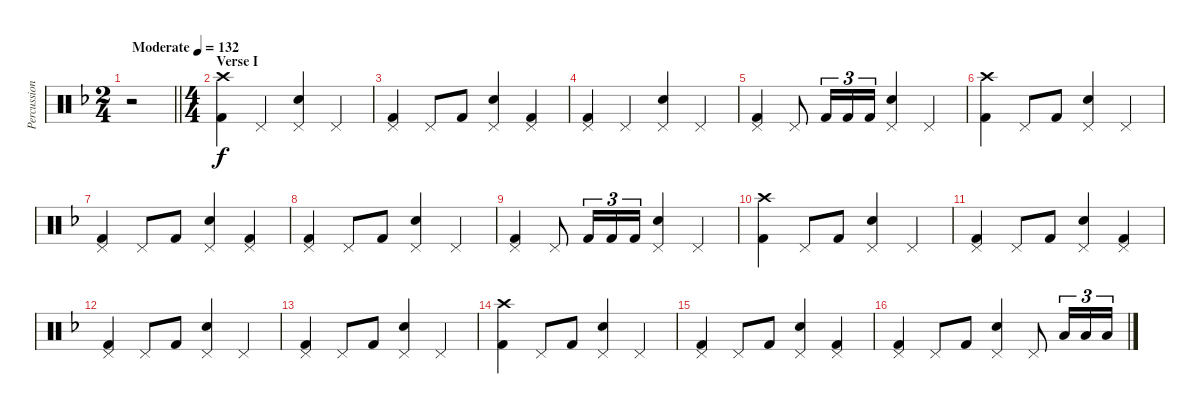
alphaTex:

\track ("Percussion" "Percussion") {instrument percussion}
\staff {score}
\articulation defaults
\ts (2 4)
\tempo (132 "Moderate")
\clef neutral
\barLineRight lightlight
\ks dminor
r.2{dy f} |
\ts (4 4)
\section ("" "Verse I")
("Crash high (hit)" "Kick (hit) 2").4 "Pedal Hi-Hat (hit)".4 ("Pedal Hi-Hat (hit)" "Electric Snare (hit)").4 "Pedal Hi-Hat (hit)".4 |
("Pedal Hi-Hat (hit)" "Kick (hit) 2").4 "Pedal Hi-Hat (hit)".8 "Kick (hit) 2".8 ("Pedal Hi-Hat (hit)" "Electric Snare (hit)").4 ("Pedal Hi-Hat (hit)" "Kick (hit) 2").4 |
("Pedal Hi-Hat (hit)" "Kick (hit) 2").4 "Pedal Hi-Hat (hit)".4 ("Pedal Hi-Hat (hit)" "Electric Snare (hit)").4 "Pedal Hi-Hat (hit)".4 |
("Pedal Hi-Hat (hit)" "Kick (hit) 2").4 "Pedal Hi-Hat (hit)".8 "Kick (hit) 2".16{tu (3 2)} "Kick (hit) 2".16{tu (3 2)} "Kick (hit) 2".16{tu (3 2)} ("Pedal Hi-Hat (hit)" "Electric Snare (hit)").4 "Pedal Hi-Hat (hit)".4 |
("Crash high (hit)" "Kick (hit) 2").4 "Pedal Hi-Hat (hit)".8 "Kick (hit) 2".8 ("Pedal Hi-Hat (hit)" "Electric Snare (hit)").4 "Pedal Hi-Hat (hit)".4 |
("Pedal Hi-Hat (hit)" "Kick (hit) 2").4 "Pedal Hi-Hat (hit)".8 "Kick (hit) 2".8 ("Pedal Hi-Hat (hit)" "Electric Snare (hit)").4 ("Pedal Hi-Hat (hit)" "Kick (hit) 2").4 |
("Pedal Hi-Hat (hit)" "Kick (hit) 2").4 "Pedal Hi-Hat (hit)".8 "Kick (hit) 2".8 ("Pedal Hi-Hat (hit)" "Electric Snare (hit)").4 "Pedal Hi-Hat (hit)".4 |
("Pedal Hi-Hat (hit)" "Kick (hit) 2").4 "Pedal Hi-Hat (hit)".8 "Kick (hit) 2".16{tu (3 2)} "Kick (hit) 2".16{tu (3 2)} "Kick (hit) 2".16{tu (3 2)} ("Pedal Hi-Hat (hit)" "Electric Snare (hit)").4 "Pedal Hi-Hat (hit)".4 |
("Crash high (hit)" "Kick (hit) 2").4 "Pedal Hi-Hat (hit)".8 "Kick (hit) 2".8 ("Pedal Hi-Hat (hit)" "Electric Snare (hit)").4 "Pedal Hi-Hat (hit)".4 |
("Pedal Hi-Hat (hit)" "Kick (hit) 2").4 "Pedal Hi-Hat (hit)".8 "Kick (hit) 2".8 ("Pedal Hi-Hat (hit)" "Electric Snare (hit)").4 ("Pedal Hi-Hat (hit)" "Kick (hit) 2").4 |
("Pedal Hi-Hat (hit)" "Kick (hit) 2").4 "Pedal Hi-Hat (hit)".8 "Kick (hit) 2".8 ("Pedal Hi-Hat (hit)" "Electric Snare (hit)").4 "Pedal Hi-Hat (hit)".4 |
("Pedal Hi-Hat (hit)" "Kick (hit) 2").4 "Pedal Hi-Hat (hit)".8 "Kick (hit) 2".8 ("Pedal Hi-Hat (hit)" "Electric Snare (hit)").4 "Pedal Hi-Hat (hit)".4 |
("Crash high (hit)" "Kick (hit) 2").4 "Pedal Hi-Hat (hit)".8 "Kick (hit) 2".8 ("Pedal Hi-Hat (hit)" "Electric Snare (hit)").4 "Pedal Hi-Hat (hit)".4 |
("Pedal Hi-Hat (hit)" "Kick (hit) 2").4 "Pedal Hi-Hat (hit)".8 "Kick (hit) 2".8 ("Pedal Hi-Hat (hit)" "Electric Snare (hit)").4 ("Pedal Hi-Hat (hit)" "Kick (hit) 2").4 |
("Pedal Hi-Hat (hit)" "Kick (hit) 2").4 "Pedal Hi-Hat (hit)".8 "Kick (hit) 2".8 ("Pedal Hi-Hat (hit)" "Electric Snare (hit)").4 "Pedal Hi-Hat (hit)".8 "Low Tom (hit)".16{tu (3 2)} "Low Tom (hit)".16{tu (3 2)} "Low Tom (hit)".16{tu (3 2)}
